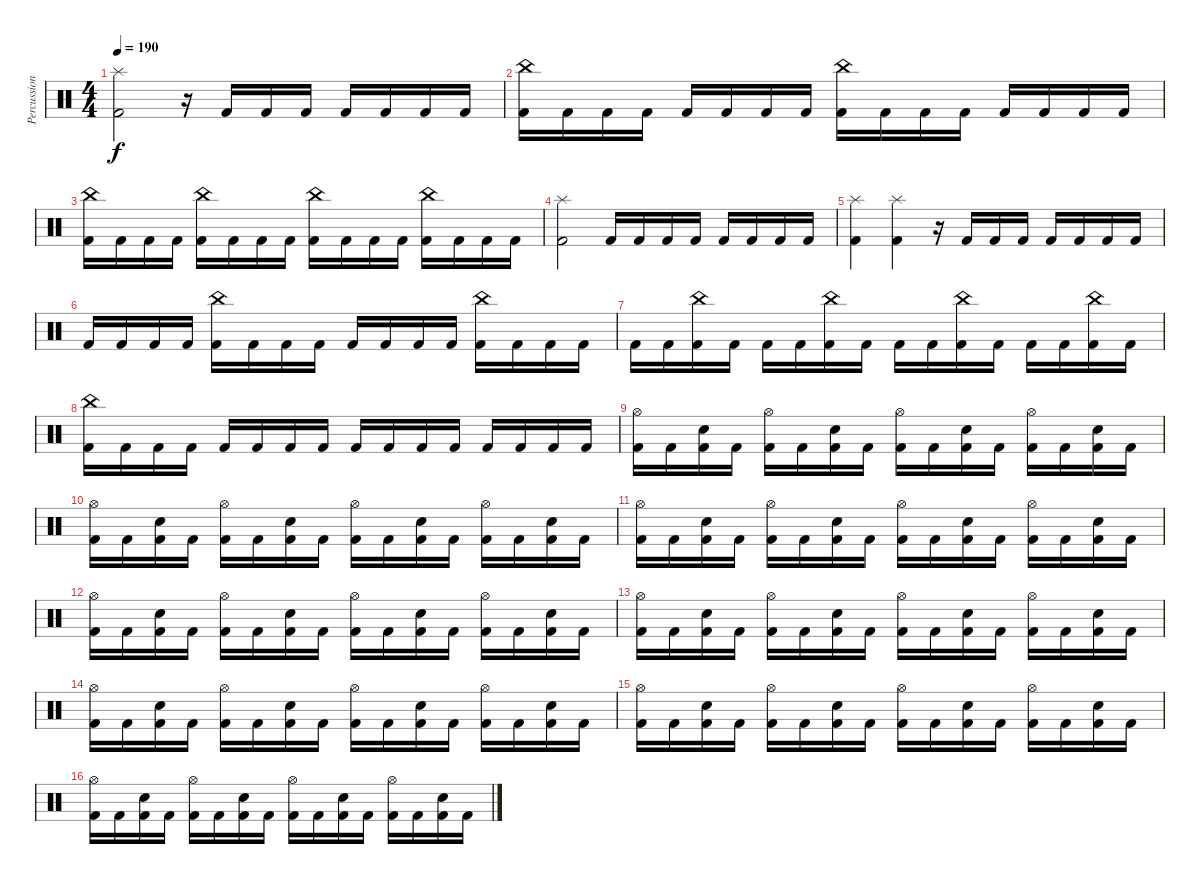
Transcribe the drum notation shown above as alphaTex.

\track ("Percussion" "Percussion") {instrument percussion}
\staff {score}
\articulation defaults
\ts (4 4)
\tempo 190
\clef neutral
\ks c
("Splash (hit)" "Kick (hit) 2").2{dy f} r.16 "Kick (hit) 2".16 "Kick (hit) 2".16 "Kick (hit) 2".16 "Kick (hit) 2".16 "Kick (hit) 2".16 "Kick (hit) 2".16 "Kick (hit) 2".16 |
("China (hit)" "Kick (hit) 2").16 "Kick (hit) 2".16 "Kick (hit) 2".16 "Kick (hit) 2".16 "Kick (hit) 2".16 "Kick (hit) 2".16 "Kick (hit) 2".16 "Kick (hit) 2".16 ("China (hit)" "Kick (hit) 2").16 "Kick (hit) 2".16 "Kick (hit) 2".16 "Kick (hit) 2".16 "Kick (hit) 2".16 "Kick (hit) 2".16 "Kick (hit) 2".16 "Kick (hit) 2".16 |
("China (hit)" "Kick (hit) 2").16 "Kick (hit) 2".16 "Kick (hit) 2".16 "Kick (hit) 2".16 ("China (hit)" "Kick (hit) 2").16 "Kick (hit) 2".16 "Kick (hit) 2".16 "Kick (hit) 2".16 ("China (hit)" "Kick (hit) 2").16 "Kick (hit) 2".16 "Kick (hit) 2".16 "Kick (hit) 2".16 ("China (hit)" "Kick (hit) 2").16 "Kick (hit) 2".16 "Kick (hit) 2".16 "Kick (hit) 2".16 |
("Splash (hit)" "Kick (hit) 2").2 "Kick (hit) 2".16 "Kick (hit) 2".16 "Kick (hit) 2".16 "Kick (hit) 2".16 "Kick (hit) 2".16 "Kick (hit) 2".16 "Kick (hit) 2".16 "Kick (hit) 2".16 |
("Splash (hit)" "Kick (hit) 2").4 ("Splash (hit)" "Kick (hit) 2").4 r.16 "Kick (hit) 2".16 "Kick (hit) 2".16 "Kick (hit) 2".16 "Kick (hit) 2".16 "Kick (hit) 2".16 "Kick (hit) 2".16 "Kick (hit) 2".16 |
"Kick (hit) 2".16 "Kick (hit) 2".16 "Kick (hit) 2".16 "Kick (hit) 2".16 ("China (hit)" "Kick (hit) 2").16 "Kick (hit) 2".16 "Kick (hit) 2".16 "Kick (hit) 2".16 "Kick (hit) 2".16 "Kick (hit) 2".16 "Kick (hit) 2".16 "Kick (hit) 2".16 ("China (hit)" "Kick (hit) 2").16 "Kick (hit) 2".16 "Kick (hit) 2".16 "Kick (hit) 2".16 |
"Kick (hit) 2".16 "Kick (hit) 2".16 ("China (hit)" "Kick (hit) 2").16 "Kick (hit) 2".16 "Kick (hit) 2".16 "Kick (hit) 2".16 ("China (hit)" "Kick (hit) 2").16 "Kick (hit) 2".16 "Kick (hit) 2".16 "Kick (hit) 2".16 ("China (hit)" "Kick (hit) 2").16 "Kick (hit) 2".16 "Kick (hit) 2".16 "Kick (hit) 2".16 ("China (hit)" "Kick (hit) 2").16 "Kick (hit) 2".16 |
("China (hit)" "Kick (hit) 2").16 "Kick (hit) 2".16 "Kick (hit) 2".16 "Kick (hit) 2".16 "Kick (hit) 2".16 "Kick (hit) 2".16 "Kick (hit) 2".16 "Kick (hit) 2".16 "Kick (hit) 2".16 "Kick (hit) 2".16 "Kick (hit) 2".16 "Kick (hit) 2".16 "Kick (hit) 2".16 "Kick (hit) 2".16 "Kick (hit) 2".16 "Kick (hit) 2".16 |
("Hi-Hat (open)" "Kick (hit) 2").16 "Kick (hit) 2".16 ("Snare (hit) 2" "Kick (hit) 2").16 "Kick (hit) 2".16 ("Hi-Hat (open)" "Kick (hit) 2").16 "Kick (hit) 2".16 ("Snare (hit) 2" "Kick (hit) 2").16 "Kick (hit) 2".16 ("Hi-Hat (open)" "Kick (hit) 2").16 "Kick (hit) 2".16 ("Snare (hit) 2" "Kick (hit) 2").16 "Kick (hit) 2".16 ("Hi-Hat (open)" "Kick (hit) 2").16 "Kick (hit) 2".16 ("Snare (hit) 2" "Kick (hit) 2").16 "Kick (hit) 2".16 |
("Hi-Hat (open)" "Kick (hit) 2").16 "Kick (hit) 2".16 ("Snare (hit) 2" "Kick (hit) 2").16 "Kick (hit) 2".16 ("Hi-Hat (open)" "Kick (hit) 2").16 "Kick (hit) 2".16 ("Snare (hit) 2" "Kick (hit) 2").16 "Kick (hit) 2".16 ("Hi-Hat (open)" "Kick (hit) 2").16 "Kick (hit) 2".16 ("Snare (hit) 2" "Kick (hit) 2").16 "Kick (hit) 2".16 ("Hi-Hat (open)" "Kick (hit) 2").16 "Kick (hit) 2".16 ("Snare (hit) 2" "Kick (hit) 2").16 "Kick (hit) 2".16 |
("Hi-Hat (open)" "Kick (hit) 2").16 "Kick (hit) 2".16 ("Snare (hit) 2" "Kick (hit) 2").16 "Kick (hit) 2".16 ("Hi-Hat (open)" "Kick (hit) 2").16 "Kick (hit) 2".16 ("Snare (hit) 2" "Kick (hit) 2").16 "Kick (hit) 2".16 ("Hi-Hat (open)" "Kick (hit) 2").16 "Kick (hit) 2".16 ("Snare (hit) 2" "Kick (hit) 2").16 "Kick (hit) 2".16 ("Hi-Hat (open)" "Kick (hit) 2").16 "Kick (hit) 2".16 ("Snare (hit) 2" "Kick (hit) 2").16 "Kick (hit) 2".16 |
("Hi-Hat (open)" "Kick (hit) 2").16 "Kick (hit) 2".16 ("Snare (hit) 2" "Kick (hit) 2").16 "Kick (hit) 2".16 ("Hi-Hat (open)" "Kick (hit) 2").16 "Kick (hit) 2".16 ("Snare (hit) 2" "Kick (hit) 2").16 "Kick (hit) 2".16 ("Hi-Hat (open)" "Kick (hit) 2").16 "Kick (hit) 2".16 ("Snare (hit) 2" "Kick (hit) 2").16 "Kick (hit) 2".16 ("Hi-Hat (open)" "Kick (hit) 2").16 "Kick (hit) 2".16 ("Snare (hit) 2" "Kick (hit) 2").16 "Kick (hit) 2".16 |
("Hi-Hat (open)" "Kick (hit) 2").16 "Kick (hit) 2".16 ("Snare (hit) 2" "Kick (hit) 2").16 "Kick (hit) 2".16 ("Hi-Hat (open)" "Kick (hit) 2").16 "Kick (hit) 2".16 ("Snare (hit) 2" "Kick (hit) 2").16 "Kick (hit) 2".16 ("Hi-Hat (open)" "Kick (hit) 2").16 "Kick (hit) 2".16 ("Snare (hit) 2" "Kick (hit) 2").16 "Kick (hit) 2".16 ("Hi-Hat (open)" "Kick (hit) 2").16 "Kick (hit) 2".16 ("Snare (hit) 2" "Kick (hit) 2").16 "Kick (hit) 2".16 |
("Hi-Hat (open)" "Kick (hit) 2").16 "Kick (hit) 2".16 ("Snare (hit) 2" "Kick (hit) 2").16 "Kick (hit) 2".16 ("Hi-Hat (open)" "Kick (hit) 2").16 "Kick (hit) 2".16 ("Snare (hit) 2" "Kick (hit) 2").16 "Kick (hit) 2".16 ("Hi-Hat (open)" "Kick (hit) 2").16 "Kick (hit) 2".16 ("Snare (hit) 2" "Kick (hit) 2").16 "Kick (hit) 2".16 ("Hi-Hat (open)" "Kick (hit) 2").16 "Kick (hit) 2".16 ("Snare (hit) 2" "Kick (hit) 2").16 "Kick (hit) 2".16 |
("Hi-Hat (open)" "Kick (hit) 2").16 "Kick (hit) 2".16 ("Snare (hit) 2" "Kick (hit) 2").16 "Kick (hit) 2".16 ("Hi-Hat (open)" "Kick (hit) 2").16 "Kick (hit) 2".16 ("Snare (hit) 2" "Kick (hit) 2").16 "Kick (hit) 2".16 ("Hi-Hat (open)" "Kick (hit) 2").16 "Kick (hit) 2".16 ("Snare (hit) 2" "Kick (hit) 2").16 "Kick (hit) 2".16 ("Hi-Hat (open)" "Kick (hit) 2").16 "Kick (hit) 2".16 ("Snare (hit) 2" "Kick (hit) 2").16 "Kick (hit) 2".16 |
("Hi-Hat (open)" "Kick (hit) 2").16 "Kick (hit) 2".16 ("Snare (hit) 2" "Kick (hit) 2").16 "Kick (hit) 2".16 ("Hi-Hat (open)" "Kick (hit) 2").16 "Kick (hit) 2".16 ("Snare (hit) 2" "Kick (hit) 2").16 "Kick (hit) 2".16 ("Hi-Hat (open)" "Kick (hit) 2").16 "Kick (hit) 2".16 ("Snare (hit) 2" "Kick (hit) 2").16 "Kick (hit) 2".16 ("Hi-Hat (open)" "Kick (hit) 2").16 "Kick (hit) 2".16 ("Snare (hit) 2" "Kick (hit) 2").16 "Kick (hit) 2".16
